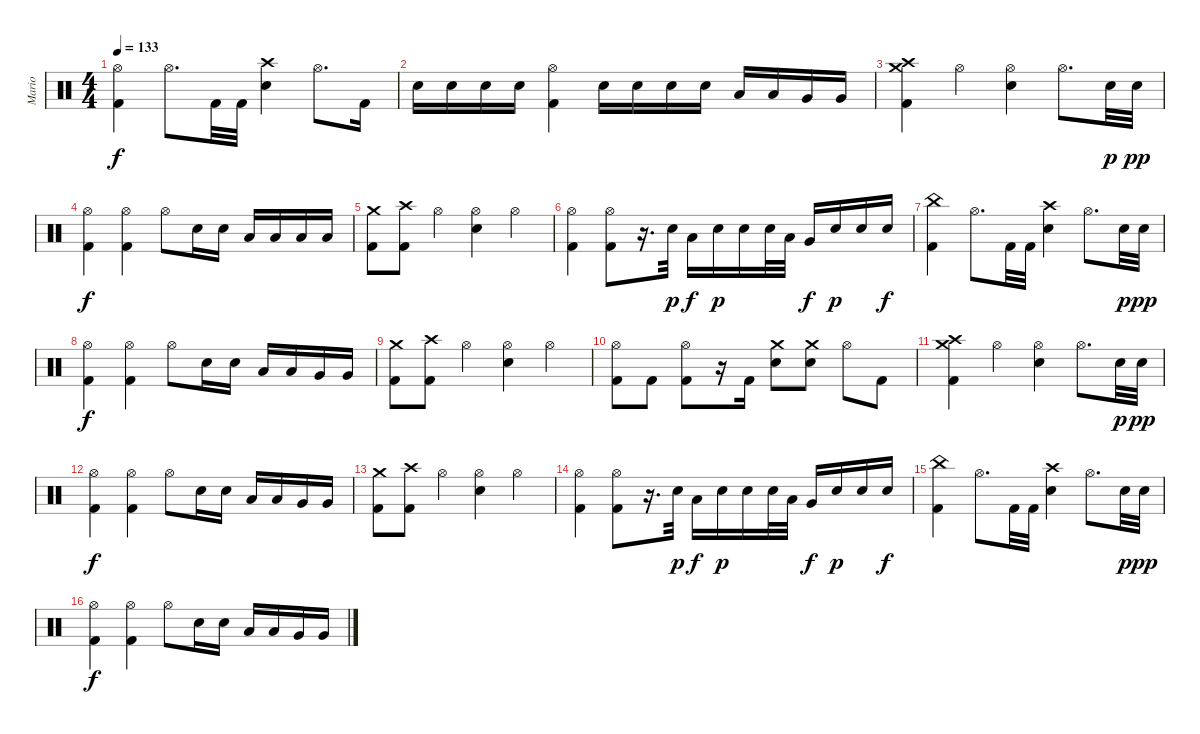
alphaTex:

\track ("Mario" "Mario") {instrument percussion}
\staff {score}
\articulation defaults
\ts (4 4)
\tempo 133
\clef neutral
\ks c
("Hi-Hat (open)" "Kick (hit) 2").4{dy f} "Hi-Hat (open)".8{d} "Kick (hit) 2".32 "Kick (hit) 2".32 ("Crash high (hit)" "Electric Snare (hit)").4 "Hi-Hat (open)".8{d} "Kick (hit) 2".16 |
"Electric Snare (hit)".16 "Electric Snare (hit)".16 "Electric Snare (hit)".16 "Electric Snare (hit)".16 ("Hi-Hat (open)" "Kick (hit) 2").4 "Electric Snare (hit)".16 "Electric Snare (hit)".16 "Electric Snare (hit)".16 "Electric Snare (hit)".16 "Low Tom (hit)".16 "Low Tom (hit)".16 "Very Low Tom (hit)".16 "Very Low Tom (hit)".16 |
("Crash medium (hit)" "Crash high (hit)" "Kick (hit) 2").4 "Hi-Hat (open)".4 ("Hi-Hat (open)" "Electric Snare (hit)").4 "Hi-Hat (open)".8{d} "Electric Snare (hit)".32{dy p} "Electric Snare (hit)".32{dy pp} |
("Hi-Hat (open)" "Kick (hit) 2").4{dy f} ("Hi-Hat (open)" "Kick (hit) 2").4 "Hi-Hat (open)".8 "Electric Snare (hit)".16 "Electric Snare (hit)".16 "Low Tom (hit)".16 "Low Tom (hit)".16 "Low Tom (hit)".16 "Low Tom (hit)".16 |
("Crash medium (hit)" "Kick (hit) 2").8 ("Crash high (hit)" "Kick (hit) 2").8 "Hi-Hat (open)".4 ("Hi-Hat (open)" "Electric Snare (hit)").4 "Hi-Hat (open)".4 |
("Hi-Hat (open)" "Kick (hit) 2").4 ("Hi-Hat (open)" "Kick (hit) 2").8 r.16{d} "Electric Snare (hit)".32{dy p} "Low Tom (hit)".16{dy f} "Electric Snare (hit)".16{dy p} "Electric Snare (hit)".16 "Electric Snare (hit)".32 "Low Tom (hit)".32 "Very Low Tom (hit)".16{dy f} "Electric Snare (hit)".16{dy p} "Electric Snare (hit)".16 "Electric Snare (hit)".16{dy f} |
("China (hit)" "Kick (hit) 2").4 "Hi-Hat (open)".8{d} "Kick (hit) 2".32 "Kick (hit) 2".32 ("Crash high (hit)" "Electric Snare (hit)").4 "Hi-Hat (open)".8{d} "Electric Snare (hit)".32{dy p} "Electric Snare (hit)".32{dy pp} |
("Hi-Hat (open)" "Kick (hit) 2").4{dy f} ("Hi-Hat (open)" "Kick (hit) 2").4 "Hi-Hat (open)".8 "Electric Snare (hit)".16 "Electric Snare (hit)".16 "Low Tom (hit)".16 "Low Tom (hit)".16 "Very Low Tom (hit)".16 "Very Low Tom (hit)".16 |
("Crash medium (hit)" "Kick (hit) 2").8 ("Crash high (hit)" "Kick (hit) 2").8 "Hi-Hat (open)".4 ("Hi-Hat (open)" "Electric Snare (hit)").4 "Hi-Hat (open)".4 |
("Hi-Hat (open)" "Kick (hit) 2").8 "Kick (hit) 2".8 ("Hi-Hat (open)" "Kick (hit) 2").8 r.16 "Kick (hit) 2".16 ("Crash medium (hit)" "Electric Snare (hit)").8 ("Crash medium (hit)" "Electric Snare (hit)").8 "Hi-Hat (open)".8 "Kick (hit) 2".8 |
("Crash medium (hit)" "Crash high (hit)" "Kick (hit) 2").4 "Hi-Hat (open)".4 ("Hi-Hat (open)" "Electric Snare (hit)").4 "Hi-Hat (open)".8{d} "Electric Snare (hit)".32{dy p} "Electric Snare (hit)".32{dy pp} |
("Hi-Hat (open)" "Kick (hit) 2").4{dy f} ("Hi-Hat (open)" "Kick (hit) 2").4 "Hi-Hat (open)".8 "Electric Snare (hit)".16 "Electric Snare (hit)".16 "Low Tom (hit)".16 "Low Tom (hit)".16 "Very Low Tom (hit)".16 "Very Low Tom (hit)".16 |
("Crash medium (hit)" "Kick (hit) 2").8 ("Crash high (hit)" "Kick (hit) 2").8 "Hi-Hat (open)".4 ("Hi-Hat (open)" "Electric Snare (hit)").4 "Hi-Hat (open)".4 |
("Hi-Hat (open)" "Kick (hit) 2").4 ("Hi-Hat (open)" "Kick (hit) 2").8 r.16{d} "Electric Snare (hit)".32{dy p} "Low Tom (hit)".16{dy f} "Electric Snare (hit)".16{dy p} "Electric Snare (hit)".16 "Electric Snare (hit)".32 "Low Tom (hit)".32 "Very Low Tom (hit)".16{dy f} "Electric Snare (hit)".16{dy p} "Electric Snare (hit)".16 "Electric Snare (hit)".16{dy f} |
("China (hit)" "Kick (hit) 2").4 "Hi-Hat (open)".8{d} "Kick (hit) 2".32 "Kick (hit) 2".32 ("Crash high (hit)" "Electric Snare (hit)").4 "Hi-Hat (open)".8{d} "Electric Snare (hit)".32{dy p} "Electric Snare (hit)".32{dy pp} |
("Hi-Hat (open)" "Kick (hit) 2").4{dy f} ("Hi-Hat (open)" "Kick (hit) 2").4 "Hi-Hat (open)".8 "Electric Snare (hit)".16 "Electric Snare (hit)".16 "Low Tom (hit)".16 "Low Tom (hit)".16 "Very Low Tom (hit)".16 "Very Low Tom (hit)".16
